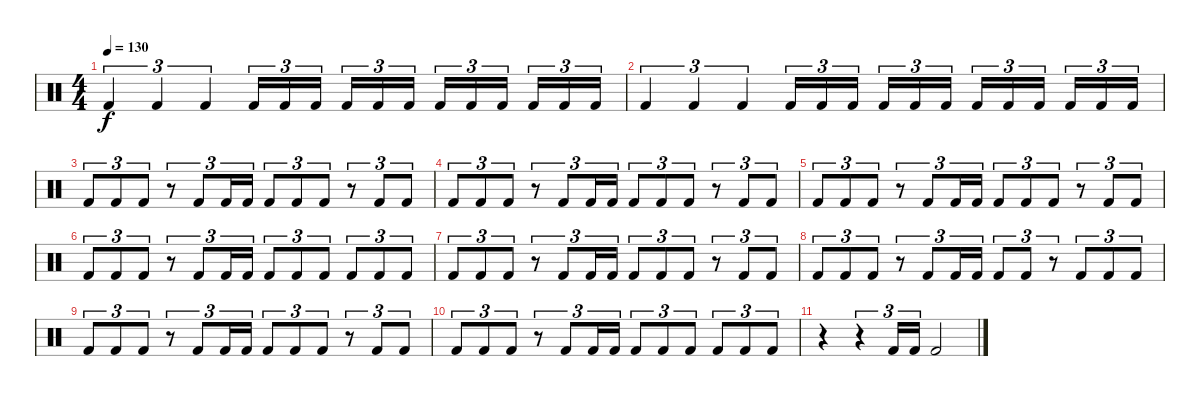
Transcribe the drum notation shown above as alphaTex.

\track "" {instrument percussion}
\staff {score}
\articulation defaults
\ts (4 4)
\tempo 130
\clef neutral
\ks c "Kick (hit) 2".4{tu (3 2) dy f} "Kick (hit) 2".4{tu (3 2)} "Kick (hit) 2".4{tu (3 2)} "Kick (hit) 2".16{tu (3 2)} "Kick (hit) 2".16{tu (3 2)} "Kick (hit) 2".16{tu (3 2)} "Kick (hit) 2".16{tu (3 2)} "Kick (hit) 2".16{tu (3 2)} "Kick (hit) 2".16{tu (3 2)} "Kick (hit) 2".16{tu (3 2)} "Kick (hit) 2".16{tu (3 2)} "Kick (hit) 2".16{tu (3 2)} "Kick (hit) 2".16{tu (3 2)} "Kick (hit) 2".16{tu (3 2)} "Kick (hit) 2".16{tu (3 2)}
|
"Kick (hit) 2".4{tu (3 2)} "Kick (hit) 2".4{tu (3 2)} "Kick (hit) 2".4{tu (3 2)} "Kick (hit) 2".16{tu (3 2)} "Kick (hit) 2".16{tu (3 2)} "Kick (hit) 2".16{tu (3 2)} "Kick (hit) 2".16{tu (3 2)} "Kick (hit) 2".16{tu (3 2)} "Kick (hit) 2".16{tu (3 2)} "Kick (hit) 2".16{tu (3 2)} "Kick (hit) 2".16{tu (3 2)} "Kick (hit) 2".16{tu (3 2)} "Kick (hit) 2".16{tu (3 2)} "Kick (hit) 2".16{tu (3 2)} "Kick (hit) 2".16{tu (3 2)} |
"Kick (hit) 2".8{tu (3 2)} "Kick (hit) 2".8{tu (3 2)} "Kick (hit) 2".8{tu (3 2)} r.8{tu (3 2)} "Kick (hit) 2".8{tu (3 2)} "Kick (hit) 2".16{tu (3 2)} "Kick (hit) 2".16{tu (3 2)} "Kick (hit) 2".8{tu (3 2)} "Kick (hit) 2".8{tu (3 2)} "Kick (hit) 2".8{tu (3 2)} r.8{tu (3 2)} "Kick (hit) 2".8{tu (3 2)} "Kick (hit) 2".8{tu (3 2)} |
"Kick (hit) 2".8{tu (3 2)} "Kick (hit) 2".8{tu (3 2)} "Kick (hit) 2".8{tu (3 2)} r.8{tu (3 2)} "Kick (hit) 2".8{tu (3 2)} "Kick (hit) 2".16{tu (3 2)} "Kick (hit) 2".16{tu (3 2)} "Kick (hit) 2".8{tu (3 2)} "Kick (hit) 2".8{tu (3 2)} "Kick (hit) 2".8{tu (3 2)} r.8{tu (3 2)} "Kick (hit) 2".8{tu (3 2)} "Kick (hit) 2".8{tu (3 2)} |
"Kick (hit) 2".8{tu (3 2)} "Kick (hit) 2".8{tu (3 2)} "Kick (hit) 2".8{tu (3 2)} r.8{tu (3 2)} "Kick (hit) 2".8{tu (3 2)} "Kick (hit) 2".16{tu (3 2)} "Kick (hit) 2".16{tu (3 2)} "Kick (hit) 2".8{tu (3 2)} "Kick (hit) 2".8{tu (3 2)} "Kick (hit) 2".8{tu (3 2)} r.8{tu (3 2)} "Kick (hit) 2".8{tu (3 2)} "Kick (hit) 2".8{tu (3 2)} |
"Kick (hit) 2".8{tu (3 2)} "Kick (hit) 2".8{tu (3 2)} "Kick (hit) 2".8{tu (3 2)} r.8{tu (3 2)} "Kick (hit) 2".8{tu (3 2)} "Kick (hit) 2".16{tu (3 2)} "Kick (hit) 2".16{tu (3 2)} "Kick (hit) 2".8{tu (3 2)} "Kick (hit) 2".8{tu (3 2)} "Kick (hit) 2".8{tu (3 2)} "Kick (hit) 2".8{tu (3 2)} "Kick (hit) 2".8{tu (3 2)} "Kick (hit) 2".8{tu (3 2)} |
"Kick (hit) 2".8{tu (3 2)} "Kick (hit) 2".8{tu (3 2)} "Kick (hit) 2".8{tu (3 2)} r.8{tu (3 2)} "Kick (hit) 2".8{tu (3 2)} "Kick (hit) 2".16{tu (3 2)} "Kick (hit) 2".16{tu (3 2)} "Kick (hit) 2".8{tu (3 2)} "Kick (hit) 2".8{tu (3 2)} "Kick (hit) 2".8{tu (3 2)} r.8{tu (3 2)} "Kick (hit) 2".8{tu (3 2)} "Kick (hit) 2".8{tu (3 2)} |
"Kick (hit) 2".8{tu (3 2)} "Kick (hit) 2".8{tu (3 2)} "Kick (hit) 2".8{tu (3 2)} r.8{tu (3 2)} "Kick (hit) 2".8{tu (3 2)} "Kick (hit) 2".16{tu (3 2)} "Kick (hit) 2".16{tu (3 2)} "Kick (hit) 2".8{tu (3 2)} "Kick (hit) 2".8{tu (3 2)} r.8{tu (3 2)} "Kick (hit) 2".8{tu (3 2)} "Kick (hit) 2".8{tu (3 2)} "Kick (hit) 2".8{tu (3 2)} |
"Kick (hit) 2".8{tu (3 2)} "Kick (hit) 2".8{tu (3 2)} "Kick (hit) 2".8{tu (3 2)} r.8{tu (3 2)} "Kick (hit) 2".8{tu (3 2)} "Kick (hit) 2".16{tu (3 2)} "Kick (hit) 2".16{tu (3 2)} "Kick (hit) 2".8{tu (3 2)} "Kick (hit) 2".8{tu (3 2)} "Kick (hit) 2".8{tu (3 2)} r.8{tu (3 2)} "Kick (hit) 2".8{tu (3 2)} "Kick (hit) 2".8{tu (3 2)} |
"Kick (hit) 2".8{tu (3 2)} "Kick (hit) 2".8{tu (3 2)} "Kick (hit) 2".8{tu (3 2)} r.8{tu (3 2)} "Kick (hit) 2".8{tu (3 2)} "Kick (hit) 2".16{tu (3 2)} "Kick (hit) 2".16{tu (3 2)} "Kick (hit) 2".8{tu (3 2)} "Kick (hit) 2".8{tu (3 2)} "Kick (hit) 2".8{tu (3 2)} "Kick (hit) 2".8{tu (3 2)} "Kick (hit) 2".8{tu (3 2)} "Kick (hit) 2".8{tu (3 2)} |
r.4 r.4{tu (3 2)} "Kick (hit) 2".16{tu (3 2)} "Kick (hit) 2".16{tu (3 2)} "Kick (hit) 2".2
